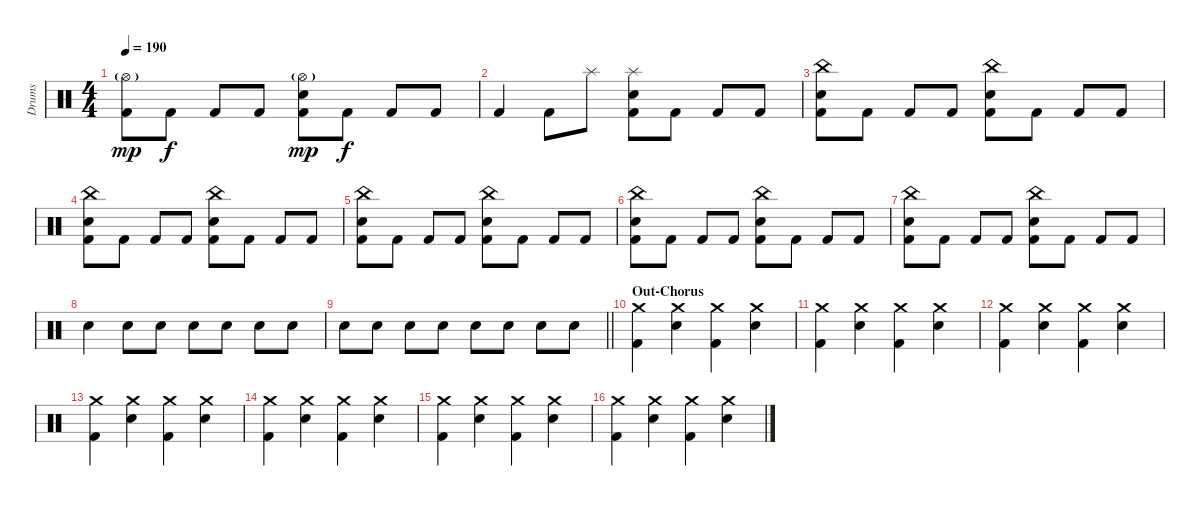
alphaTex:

\track ("Drums" "Drums") {instrument percussion}
\staff {score}
\articulation defaults
\ts (4 4)
\tempo 190
\clef neutral
\ks c
("Hi-Hat (open)"{g} "Kick (hit) 2").8{dy mp} "Kick (hit) 2".8{dy f} "Kick (hit) 2".8 "Kick (hit) 2".8 ("Hi-Hat (open)"{g} "Electric Snare (hit)" "Kick (hit) 2").8{dy mp} "Kick (hit) 2".8{dy f} "Kick (hit) 2".8 "Kick (hit) 2".8 |
"Kick (hit) 2".4 "Kick (hit) 2".8 "Splash (hit)".8 ("Splash (hit)" "Electric Snare (hit)" "Kick (hit) 2").8 "Kick (hit) 2".8 "Kick (hit) 2".8 "Kick (hit) 2".8 |
("China (hit)" "Electric Snare (hit)" "Kick (hit) 2").8 "Kick (hit) 2".8 "Kick (hit) 2".8 "Kick (hit) 2".8 ("China (hit)" "Electric Snare (hit)" "Kick (hit) 2").8 "Kick (hit) 2".8 "Kick (hit) 2".8 "Kick (hit) 2".8 |
("China (hit)" "Electric Snare (hit)" "Kick (hit) 2").8 "Kick (hit) 2".8 "Kick (hit) 2".8 "Kick (hit) 2".8 ("China (hit)" "Electric Snare (hit)" "Kick (hit) 2").8 "Kick (hit) 2".8 "Kick (hit) 2".8 "Kick (hit) 2".8 |
("China (hit)" "Electric Snare (hit)" "Kick (hit) 2").8 "Kick (hit) 2".8 "Kick (hit) 2".8 "Kick (hit) 2".8 ("China (hit)" "Electric Snare (hit)" "Kick (hit) 2").8 "Kick (hit) 2".8 "Kick (hit) 2".8 "Kick (hit) 2".8 |
("China (hit)" "Electric Snare (hit)" "Kick (hit) 2").8 "Kick (hit) 2".8 "Kick (hit) 2".8 "Kick (hit) 2".8 ("China (hit)" "Electric Snare (hit)" "Kick (hit) 2").8 "Kick (hit) 2".8 "Kick (hit) 2".8 "Kick (hit) 2".8 |
("China (hit)" "Electric Snare (hit)" "Kick (hit) 2").8 "Kick (hit) 2".8 "Kick (hit) 2".8 "Kick (hit) 2".8 ("China (hit)" "Electric Snare (hit)" "Kick (hit) 2").8 "Kick (hit) 2".8 "Kick (hit) 2".8 "Kick (hit) 2".8 |
"Electric Snare (hit)".4 "Electric Snare (hit)".8 "Electric Snare (hit)".8 "Electric Snare (hit)".8 "Electric Snare (hit)".8 "Electric Snare (hit)".8 "Electric Snare (hit)".8 |
\barLineRight lightlight "Electric Snare (hit)".8 "Electric Snare (hit)".8 "Electric Snare (hit)".8 "Electric Snare (hit)".8 "Electric Snare (hit)".8 "Electric Snare (hit)".8 "Electric Snare (hit)".8 "Electric Snare (hit)".8
|
\section ("" "Out-Chorus")
("Crash medium (hit)" "Kick (hit) 2").4 ("Crash medium (hit)" "Electric Snare (hit)").4 ("Crash medium (hit)" "Kick (hit) 2").4 ("Crash medium (hit)" "Electric Snare (hit)").4 |
("Crash medium (hit)" "Kick (hit) 2").4 ("Crash medium (hit)" "Electric Snare (hit)").4 ("Crash medium (hit)" "Kick (hit) 2").4 ("Crash medium (hit)" "Electric Snare (hit)").4 |
("Crash medium (hit)" "Kick (hit) 2").4 ("Crash medium (hit)" "Electric Snare (hit)").4 ("Crash medium (hit)" "Kick (hit) 2").4 ("Crash medium (hit)" "Electric Snare (hit)").4 |
("Crash medium (hit)" "Kick (hit) 2").4 ("Crash medium (hit)" "Electric Snare (hit)").4 ("Crash medium (hit)" "Kick (hit) 2").4 ("Crash medium (hit)" "Electric Snare (hit)").4 |
("Crash medium (hit)" "Kick (hit) 2").4 ("Crash medium (hit)" "Electric Snare (hit)").4 ("Crash medium (hit)" "Kick (hit) 2").4 ("Crash medium (hit)" "Electric Snare (hit)").4 |
("Crash medium (hit)" "Kick (hit) 2").4 ("Crash medium (hit)" "Electric Snare (hit)").4 ("Crash medium (hit)" "Kick (hit) 2").4 ("Crash medium (hit)" "Electric Snare (hit)").4 |
("Crash medium (hit)" "Kick (hit) 2").4 ("Crash medium (hit)" "Electric Snare (hit)").4 ("Crash medium (hit)" "Kick (hit) 2").4 ("Crash medium (hit)" "Electric Snare (hit)").4
